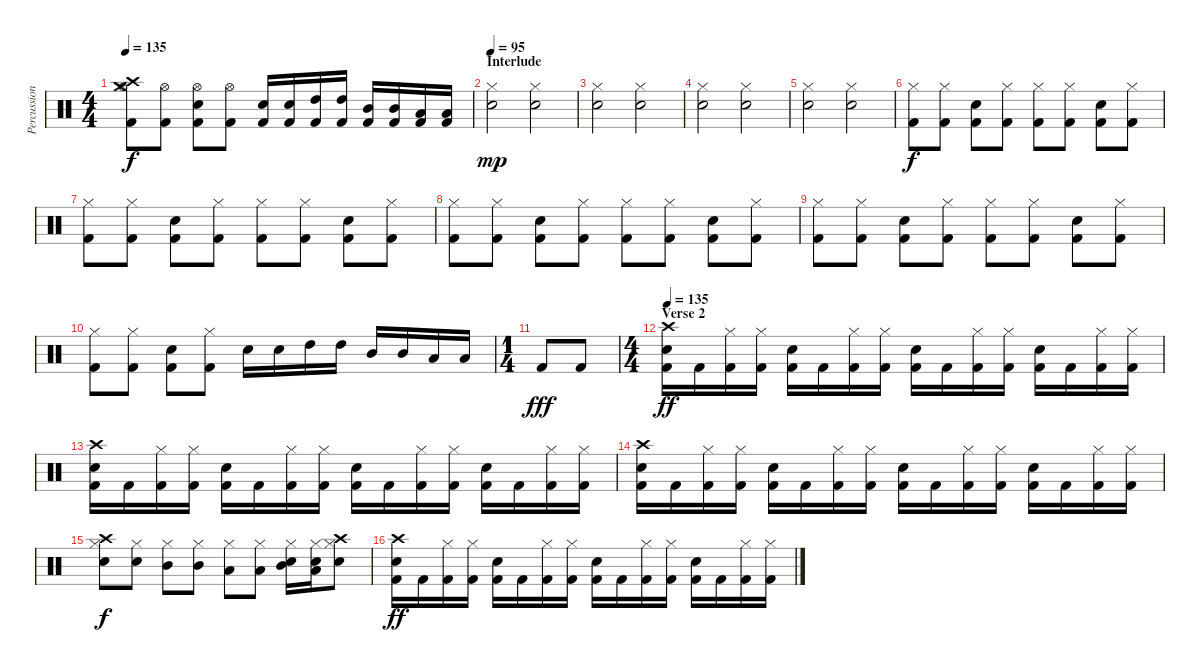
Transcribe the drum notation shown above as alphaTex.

\track ("Percussion" "Percussion") {instrument percussion}
\staff {score}
\articulation defaults
\ts (4 4)
\tempo 135
\clef neutral
\ks c
("Crash high (hit)" "Crash medium (hit)" "Hi-Hat (open)" "Kick (hit) 2").8{dy f} ("Hi-Hat (open)" "Kick (hit) 2").8 ("Hi-Hat (open)" "Electric Snare (hit)" "Kick (hit) 2").8 ("Hi-Hat (open)" "Kick (hit) 2").8 ("Electric Snare (hit)" "Kick (hit) 2").16 ("Electric Snare (hit)" "Kick (hit) 2").16 ("High Tom (hit)" "Kick (hit) 2").16 ("High Tom (hit)" "Kick (hit) 2").16 ("Mid Tom (hit)" "Kick (hit) 2").16 ("Mid Tom (hit)" "Kick (hit) 2").16 ("Low Tom (hit)" "Kick (hit) 2").16 ("Low Tom (hit)" "Kick (hit) 2").16 |
\section ("" "Interlude")
\tempo 95
("Electric Snare (hit)" "Hi-Hat (closed)").2{dy mp} ("Electric Snare (hit)" "Hi-Hat (closed)").2 |
("Electric Snare (hit)" "Hi-Hat (closed)").2 ("Electric Snare (hit)" "Hi-Hat (closed)").2 |
("Electric Snare (hit)" "Hi-Hat (closed)").2 ("Electric Snare (hit)" "Hi-Hat (closed)").2 |
("Electric Snare (hit)" "Hi-Hat (closed)").2 ("Electric Snare (hit)" "Hi-Hat (closed)").2 |
("Hi-Hat (closed)" "Kick (hit) 2").8{dy f} ("Hi-Hat (closed)" "Kick (hit) 2").8 ("Electric Snare (hit)" "Kick (hit) 2").8 ("Hi-Hat (closed)" "Kick (hit) 2").8 ("Hi-Hat (closed)" "Kick (hit) 2").8 ("Hi-Hat (closed)" "Kick (hit) 2").8 ("Electric Snare (hit)" "Kick (hit) 2").8 ("Hi-Hat (closed)" "Kick (hit) 2").8 |
("Hi-Hat (closed)" "Kick (hit) 2").8 ("Hi-Hat (closed)" "Kick (hit) 2").8 ("Electric Snare (hit)" "Kick (hit) 2").8 ("Hi-Hat (closed)" "Kick (hit) 2").8 ("Hi-Hat (closed)" "Kick (hit) 2").8 ("Hi-Hat (closed)" "Kick (hit) 2").8 ("Electric Snare (hit)" "Kick (hit) 2").8 ("Hi-Hat (closed)" "Kick (hit) 2").8 |
("Hi-Hat (closed)" "Kick (hit) 2").8 ("Hi-Hat (closed)" "Kick (hit) 2").8 ("Electric Snare (hit)" "Kick (hit) 2").8 ("Hi-Hat (closed)" "Kick (hit) 2").8 ("Hi-Hat (closed)" "Kick (hit) 2").8 ("Hi-Hat (closed)" "Kick (hit) 2").8 ("Electric Snare (hit)" "Kick (hit) 2").8 ("Hi-Hat (closed)" "Kick (hit) 2").8 |
("Hi-Hat (closed)" "Kick (hit) 2").8 ("Hi-Hat (closed)" "Kick (hit) 2").8 ("Electric Snare (hit)" "Kick (hit) 2").8 ("Hi-Hat (closed)" "Kick (hit) 2").8 ("Hi-Hat (closed)" "Kick (hit) 2").8 ("Hi-Hat (closed)" "Kick (hit) 2").8 ("Electric Snare (hit)" "Kick (hit) 2").8 ("Hi-Hat (closed)" "Kick (hit) 2").8 |
("Hi-Hat (closed)" "Kick (hit) 2").8 ("Hi-Hat (closed)" "Kick (hit) 2").8 ("Electric Snare (hit)" "Kick (hit) 2").8 ("Hi-Hat (closed)" "Kick (hit) 2").8 "Electric Snare (hit)".16 "Electric Snare (hit)".16 "High Tom (hit)".16 "High Tom (hit)".16 "Mid Tom (hit)".16 "Mid Tom (hit)".16 "Low Tom (hit)".16 "Low Tom (hit)".16 |
\ts (1 4)
"Kick (hit) 2".8{dy fff} "Kick (hit) 2".8 |
\ts (4 4)
\section ("" "Verse 2")
\tempo 135
("Crash high (hit)" "Electric Snare (hit)" "Kick (hit) 2").16{dy ff} "Kick (hit) 2".16 ("Hi-Hat (closed)" "Kick (hit) 2").16 ("Hi-Hat (closed)" "Kick (hit) 2").16 ("Electric Snare (hit)" "Kick (hit) 2").16 "Kick (hit) 2".16 ("Hi-Hat (closed)" "Kick (hit) 2").16 ("Hi-Hat (closed)" "Kick (hit) 2").16 ("Electric Snare (hit)" "Kick (hit) 2").16 "Kick (hit) 2".16 ("Hi-Hat (closed)" "Kick (hit) 2").16 ("Hi-Hat (closed)" "Kick (hit) 2").16 ("Electric Snare (hit)" "Kick (hit) 2").16 "Kick (hit) 2".16 ("Hi-Hat (closed)" "Kick (hit) 2").16 ("Hi-Hat (closed)" "Kick (hit) 2").16 |
("Crash high (hit)" "Electric Snare (hit)" "Kick (hit) 2").16 "Kick (hit) 2".16 ("Hi-Hat (closed)" "Kick (hit) 2").16 ("Hi-Hat (closed)" "Kick (hit) 2").16 ("Electric Snare (hit)" "Kick (hit) 2").16 "Kick (hit) 2".16 ("Hi-Hat (closed)" "Kick (hit) 2").16 ("Hi-Hat (closed)" "Kick (hit) 2").16 ("Electric Snare (hit)" "Kick (hit) 2").16 "Kick (hit) 2".16 ("Hi-Hat (closed)" "Kick (hit) 2").16 ("Hi-Hat (closed)" "Kick (hit) 2").16 ("Electric Snare (hit)" "Kick (hit) 2").16 "Kick (hit) 2".16 ("Hi-Hat (closed)" "Kick (hit) 2").16 ("Hi-Hat (closed)" "Kick (hit) 2").16 |
("Crash high (hit)" "Electric Snare (hit)" "Kick (hit) 2").16 "Kick (hit) 2".16 ("Hi-Hat (closed)" "Kick (hit) 2").16 ("Hi-Hat (closed)" "Kick (hit) 2").16 ("Electric Snare (hit)" "Kick (hit) 2").16 "Kick (hit) 2".16 ("Hi-Hat (closed)" "Kick (hit) 2").16 ("Hi-Hat (closed)" "Kick (hit) 2").16 ("Electric Snare (hit)" "Kick (hit) 2").16 "Kick (hit) 2".16 ("Hi-Hat (closed)" "Kick (hit) 2").16 ("Hi-Hat (closed)" "Kick (hit) 2").16 ("Electric Snare (hit)" "Kick (hit) 2").16 "Kick (hit) 2".16 ("Hi-Hat (closed)" "Kick (hit) 2").16 ("Hi-Hat (closed)" "Kick (hit) 2").16 |
("Hi-Hat (closed)" "Crash high (hit)" "Electric Snare (hit)").8{dy f} ("Hi-Hat (closed)" "Electric Snare (hit)").8 ("Hi-Hat (closed)" "Mid Tom (hit)").8 ("Hi-Hat (closed)" "Mid Tom (hit)").8 ("Hi-Hat (closed)" "Low Tom (hit)").8 ("Hi-Hat (closed)" "Low Tom (hit)").8 ("Hi-Hat (closed)" "Mid Tom (hit)" "Electric Snare (hit)").16 ("Hi-Hat (closed)" "Low Tom (hit)" "Electric Snare (hit)").16 ("Hi-Hat (closed)" "Crash high (hit)" "Electric Snare (hit)").8 |
("Crash high (hit)" "Electric Snare (hit)" "Kick (hit) 2").16{dy ff} "Kick (hit) 2".16 ("Hi-Hat (closed)" "Kick (hit) 2").16 ("Hi-Hat (closed)" "Kick (hit) 2").16 ("Electric Snare (hit)" "Kick (hit) 2").16 "Kick (hit) 2".16 ("Hi-Hat (closed)" "Kick (hit) 2").16 ("Hi-Hat (closed)" "Kick (hit) 2").16 ("Electric Snare (hit)" "Kick (hit) 2").16 "Kick (hit) 2".16 ("Hi-Hat (closed)" "Kick (hit) 2").16 ("Hi-Hat (closed)" "Kick (hit) 2").16 ("Electric Snare (hit)" "Kick (hit) 2").16 "Kick (hit) 2".16 ("Hi-Hat (closed)" "Kick (hit) 2").16 ("Hi-Hat (closed)" "Kick (hit) 2").16
